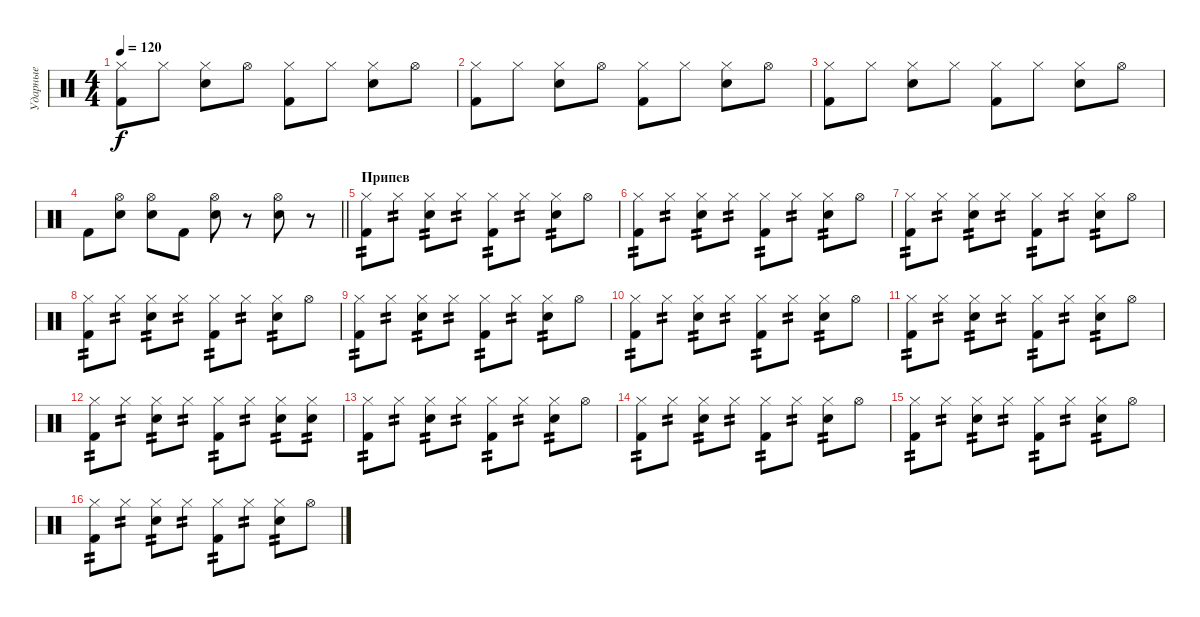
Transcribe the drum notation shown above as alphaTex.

\track ("Ударные" "Ударные") {instrument percussion}
\staff {score}
\articulation defaults
\ts (4 4)
\tempo 120
\clef neutral
\ks c
("Hi-Hat (closed)" "Kick (hit) 2").8{dy f} "Hi-Hat (closed)".8 ("Hi-Hat (closed)" "Snare (hit) 2").8 "Hi-Hat (open)".8 ("Hi-Hat (closed)" "Kick (hit) 2").8 "Hi-Hat (closed)".8 ("Hi-Hat (closed)" "Snare (hit) 2").8 "Hi-Hat (open)".8 |
("Hi-Hat (closed)" "Kick (hit) 2").8 "Hi-Hat (closed)".8 ("Hi-Hat (closed)" "Snare (hit) 2").8 "Hi-Hat (open)".8 ("Hi-Hat (closed)" "Kick (hit) 2").8 "Hi-Hat (closed)".8 ("Hi-Hat (closed)" "Snare (hit) 2").8 "Hi-Hat (open)".8 |
("Hi-Hat (closed)" "Kick (hit) 2").8 "Hi-Hat (closed)".8 ("Hi-Hat (closed)" "Snare (hit) 2").8 "Hi-Hat (closed)".8 ("Hi-Hat (closed)" "Kick (hit) 2").8 "Hi-Hat (closed)".8 ("Hi-Hat (closed)" "Snare (hit) 2").8 "Hi-Hat (open)".8 |
\barLineRight lightlight "Kick (hit) 2".8
("Hi-Hat (open)" "Snare (hit) 2").8 ("Hi-Hat (open)" "Snare (hit) 2").8 "Kick (hit) 2".8 ("Hi-Hat (open)" "Snare (hit) 2").8 r.8 ("Hi-Hat (open)" "Snare (hit) 2").8 r.8 |
\section ("" "Припев")
("Hi-Hat (closed)" "Kick (hit) 2").8{tp 2} "Hi-Hat (closed)".8{tp 2} ("Hi-Hat (closed)" "Snare (hit) 2").8{tp 2} "Hi-Hat (closed)".8{tp 2} ("Hi-Hat (closed)" "Kick (hit) 2").8{tp 2} "Hi-Hat (closed)".8{tp 2} ("Hi-Hat (closed)" "Snare (hit) 2").8{tp 2} "Hi-Hat (open)".8 |
("Hi-Hat (closed)" "Kick (hit) 2").8{tp 2} "Hi-Hat (closed)".8{tp 2} ("Hi-Hat (closed)" "Snare (hit) 2").8{tp 2} "Hi-Hat (closed)".8{tp 2} ("Hi-Hat (closed)" "Kick (hit) 2").8{tp 2} "Hi-Hat (closed)".8{tp 2} ("Hi-Hat (closed)" "Snare (hit) 2").8{tp 2} "Hi-Hat (open)".8 |
("Hi-Hat (closed)" "Kick (hit) 2").8{tp 2} "Hi-Hat (closed)".8{tp 2} ("Hi-Hat (closed)" "Snare (hit) 2").8{tp 2} "Hi-Hat (closed)".8{tp 2} ("Hi-Hat (closed)" "Kick (hit) 2").8{tp 2} "Hi-Hat (closed)".8{tp 2} ("Hi-Hat (closed)" "Snare (hit) 2").8{tp 2} "Hi-Hat (open)".8 |
("Hi-Hat (closed)" "Kick (hit) 2").8{tp 2} "Hi-Hat (closed)".8{tp 2} ("Hi-Hat (closed)" "Snare (hit) 2").8{tp 2} "Hi-Hat (closed)".8{tp 2} ("Hi-Hat (closed)" "Kick (hit) 2").8{tp 2} "Hi-Hat (closed)".8{tp 2} ("Hi-Hat (closed)" "Snare (hit) 2").8{tp 2} "Hi-Hat (open)".8 |
("Hi-Hat (closed)" "Kick (hit) 2").8{tp 2} "Hi-Hat (closed)".8{tp 2} ("Hi-Hat (closed)" "Snare (hit) 2").8{tp 2} "Hi-Hat (closed)".8{tp 2} ("Hi-Hat (closed)" "Kick (hit) 2").8{tp 2} "Hi-Hat (closed)".8{tp 2} ("Hi-Hat (closed)" "Snare (hit) 2").8{tp 2} "Hi-Hat (open)".8 |
("Hi-Hat (closed)" "Kick (hit) 2").8{tp 2} "Hi-Hat (closed)".8{tp 2} ("Hi-Hat (closed)" "Snare (hit) 2").8{tp 2} "Hi-Hat (closed)".8{tp 2} ("Hi-Hat (closed)" "Kick (hit) 2").8{tp 2} "Hi-Hat (closed)".8{tp 2} ("Hi-Hat (closed)" "Snare (hit) 2").8{tp 2} "Hi-Hat (open)".8 |
("Hi-Hat (closed)" "Kick (hit) 2").8{tp 2} "Hi-Hat (closed)".8{tp 2} ("Hi-Hat (closed)" "Snare (hit) 2").8{tp 2} "Hi-Hat (closed)".8{tp 2} ("Hi-Hat (closed)" "Kick (hit) 2").8{tp 2} "Hi-Hat (closed)".8{tp 2} ("Hi-Hat (closed)" "Snare (hit) 2").8{tp 2} "Hi-Hat (open)".8 |
("Hi-Hat (closed)" "Kick (hit) 2").8{tp 2} "Hi-Hat (closed)".8{tp 2} ("Hi-Hat (closed)" "Snare (hit) 2").8{tp 2} "Hi-Hat (closed)".8{tp 2} ("Hi-Hat (closed)" "Kick (hit) 2").8{tp 2} "Hi-Hat (closed)".8{tp 2} ("Hi-Hat (closed)" "Snare (hit) 2").8{tp 2} ("Hi-Hat (closed)" "Snare (hit) 2").8{tp 2} |
("Hi-Hat (closed)" "Kick (hit) 2").8{tp 2} "Hi-Hat (closed)".8{tp 2} ("Hi-Hat (closed)" "Snare (hit) 2").8{tp 2} "Hi-Hat (closed)".8{tp 2} ("Hi-Hat (closed)" "Kick (hit) 2").8{tp 2} "Hi-Hat (closed)".8{tp 2} ("Hi-Hat (closed)" "Snare (hit) 2").8{tp 2} "Hi-Hat (open)".8 |
("Hi-Hat (closed)" "Kick (hit) 2").8{tp 2} "Hi-Hat (closed)".8{tp 2} ("Hi-Hat (closed)" "Snare (hit) 2").8{tp 2} "Hi-Hat (closed)".8{tp 2} ("Hi-Hat (closed)" "Kick (hit) 2").8{tp 2} "Hi-Hat (closed)".8{tp 2} ("Hi-Hat (closed)" "Snare (hit) 2").8{tp 2} "Hi-Hat (open)".8 |
("Hi-Hat (closed)" "Kick (hit) 2").8{tp 2} "Hi-Hat (closed)".8{tp 2} ("Hi-Hat (closed)" "Snare (hit) 2").8{tp 2} "Hi-Hat (closed)".8{tp 2} ("Hi-Hat (closed)" "Kick (hit) 2").8{tp 2} "Hi-Hat (closed)".8{tp 2} ("Hi-Hat (closed)" "Snare (hit) 2").8{tp 2} "Hi-Hat (open)".8 |
("Hi-Hat (closed)" "Kick (hit) 2").8{tp 2} "Hi-Hat (closed)".8{tp 2} ("Hi-Hat (closed)" "Snare (hit) 2").8{tp 2} "Hi-Hat (closed)".8{tp 2} ("Hi-Hat (closed)" "Kick (hit) 2").8{tp 2} "Hi-Hat (closed)".8{tp 2} ("Hi-Hat (closed)" "Snare (hit) 2").8{tp 2} "Hi-Hat (open)".8
